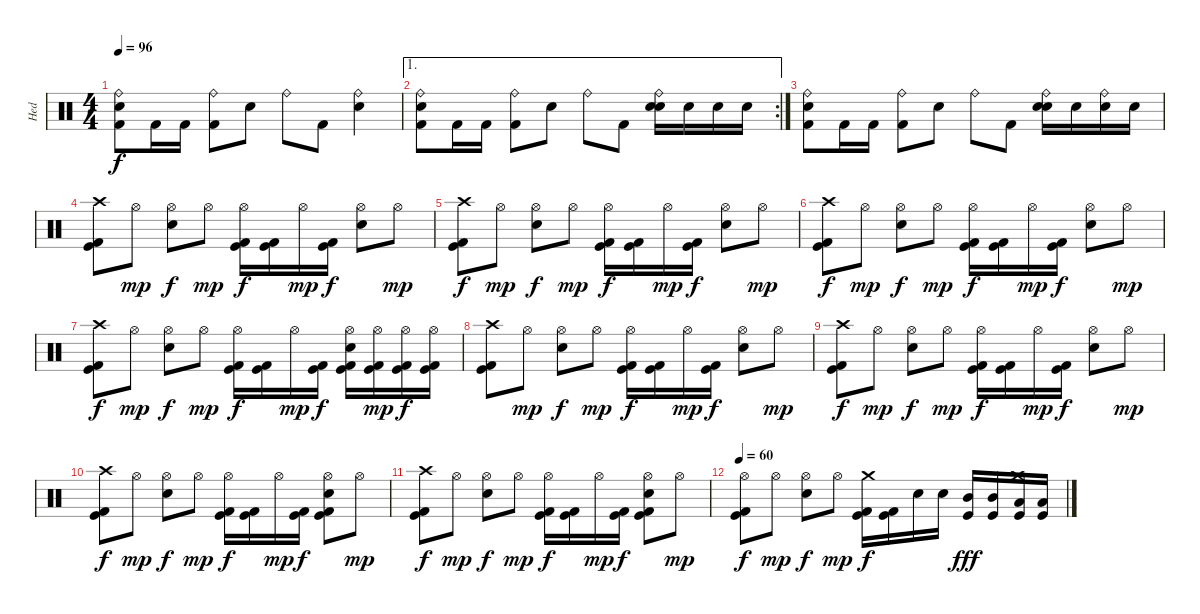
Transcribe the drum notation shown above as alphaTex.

\track ("Hed" "Hed") {instrument percussion}
\staff {score}
\articulation defaults
\ts (4 4)
\tempo 96
\clef neutral
\ks c
("Ride (bell)" "Electric Snare (hit)" "Kick (hit) 2").8{dy f} "Kick (hit) 2".16 "Kick (hit) 2".16 ("Ride (bell)" "Kick (hit) 2").8 "Electric Snare (hit)".8 "Ride (bell)".8 "Kick (hit) 2".8 ("Ride (bell)" "Electric Snare (hit)").4 |
\ae 1
\rc 2
("Ride (bell)" "Electric Snare (hit)" "Kick (hit) 2").8 "Kick (hit) 2".16 "Kick (hit) 2".16 ("Ride (bell)" "Kick (hit) 2").8 "Electric Snare (hit)".8 "Ride (bell)".8 "Kick (hit) 2".8 ("Ride (bell)" "Snare (hit) 2" "Electric Snare (hit)").16 "Snare (hit) 2".16 "Snare (hit) 2".16 "Snare (hit) 2".16 |
("Ride (bell)" "Electric Snare (hit)" "Kick (hit) 2").8 "Kick (hit) 2".16 "Kick (hit) 2".16 ("Ride (bell)" "Kick (hit) 2").8 "Electric Snare (hit)".8 "Ride (bell)".8 "Kick (hit) 2".8 ("Ride (bell)" "Snare (hit) 2" "Electric Snare (hit)").16 "Snare (hit) 2".16 ("Ride (bell)" "Snare (hit) 2").16 "Snare (hit) 2".16 |
("Crash high (hit)" "Kick (hit) 2" "Kick (hit)").8 "Hi-Hat (open)".8{dy mp} ("Hi-Hat (open)" "Snare (hit) 2").8{dy f} "Hi-Hat (open)".8{dy mp} ("Hi-Hat (open)" "Kick (hit) 2" "Kick (hit)").16{dy f} ("Kick (hit) 2" "Kick (hit)").16 "Hi-Hat (open)".16{dy mp} ("Kick (hit) 2" "Kick (hit)").16{dy f} ("Hi-Hat (open)" "Snare (hit) 2").8 "Hi-Hat (open)".8{dy mp} |
("Crash high (hit)" "Kick (hit) 2" "Kick (hit)").8{dy f} "Hi-Hat (open)".8{dy mp} ("Hi-Hat (open)" "Snare (hit) 2").8{dy f} "Hi-Hat (open)".8{dy mp} ("Hi-Hat (open)" "Kick (hit) 2" "Kick (hit)").16{dy f} ("Kick (hit) 2" "Kick (hit)").16 "Hi-Hat (open)".16{dy mp} ("Kick (hit) 2" "Kick (hit)").16{dy f} ("Hi-Hat (open)" "Snare (hit) 2").8 "Hi-Hat (open)".8{dy mp} |
("Crash high (hit)" "Kick (hit) 2" "Kick (hit)").8{dy f} "Hi-Hat (open)".8{dy mp} ("Hi-Hat (open)" "Snare (hit) 2").8{dy f} "Hi-Hat (open)".8{dy mp} ("Hi-Hat (open)" "Kick (hit) 2" "Kick (hit)").16{dy f} ("Kick (hit) 2" "Kick (hit)").16 "Hi-Hat (open)".16{dy mp} ("Kick (hit) 2" "Kick (hit)").16{dy f} ("Hi-Hat (open)" "Snare (hit) 2").8 "Hi-Hat (open)".8{dy mp} |
("Crash high (hit)" "Kick (hit) 2" "Kick (hit)").8{dy f} "Hi-Hat (open)".8{dy mp} ("Hi-Hat (open)" "Snare (hit) 2").8{dy f} "Hi-Hat (open)".8{dy mp} ("Hi-Hat (open)" "Kick (hit) 2" "Kick (hit)").16{dy f} ("Kick (hit) 2" "Kick (hit)").16 "Hi-Hat (open)".16{dy mp} ("Kick (hit) 2" "Kick (hit)").16{dy f} ("Hi-Hat (open)" "Snare (hit) 2" "Kick (hit) 2" "Kick (hit)").16 ("Hi-Hat (open)" "Kick (hit) 2" "Kick (hit)").16{dy mp} ("Hi-Hat (open)" "Kick (hit) 2" "Kick (hit)").16{dy f} ("Hi-Hat (open)" "Kick (hit) 2" "Kick (hit)").16 |
("Crash high (hit)" "Kick (hit) 2" "Kick (hit)").8 "Hi-Hat (open)".8{dy mp} ("Hi-Hat (open)" "Snare (hit) 2").8{dy f} "Hi-Hat (open)".8{dy mp} ("Hi-Hat (open)" "Kick (hit) 2" "Kick (hit)").16{dy f} ("Kick (hit) 2" "Kick (hit)").16 "Hi-Hat (open)".16{dy mp} ("Kick (hit) 2" "Kick (hit)").16{dy f} ("Hi-Hat (open)" "Snare (hit) 2").8 "Hi-Hat (open)".8{dy mp} |
("Crash high (hit)" "Kick (hit) 2" "Kick (hit)").8{dy f} "Hi-Hat (open)".8{dy mp} ("Hi-Hat (open)" "Snare (hit) 2").8{dy f} "Hi-Hat (open)".8{dy mp} ("Hi-Hat (open)" "Kick (hit) 2" "Kick (hit)").16{dy f} ("Kick (hit) 2" "Kick (hit)").16 "Hi-Hat (open)".16{dy mp} ("Kick (hit) 2" "Kick (hit)").16{dy f} ("Hi-Hat (open)" "Snare (hit) 2").8 "Hi-Hat (open)".8{dy mp} |
("Crash high (hit)" "Kick (hit) 2" "Kick (hit)").8{dy f} "Hi-Hat (open)".8{dy mp} ("Hi-Hat (open)" "Snare (hit) 2").8{dy f} "Hi-Hat (open)".8{dy mp} ("Hi-Hat (open)" "Kick (hit) 2" "Kick (hit)").16{dy f} ("Kick (hit) 2" "Kick (hit)").16 "Hi-Hat (open)".16{dy mp} ("Kick (hit) 2" "Kick (hit)").16{dy f} ("Hi-Hat (open)" "Snare (hit) 2" "Kick (hit) 2" "Kick (hit)").8 "Hi-Hat (open)".8{dy mp} |
("Crash high (hit)" "Kick (hit) 2" "Kick (hit)").8{dy f volume 0} "Hi-Hat (open)".8{dy mp} ("Hi-Hat (open)" "Snare (hit) 2").8{dy f} "Hi-Hat (open)".8{dy mp} ("Hi-Hat (open)" "Kick (hit) 2" "Kick (hit)").16{dy f} ("Kick (hit) 2" "Kick (hit)").16 "Hi-Hat (open)".16{dy mp} ("Kick (hit) 2" "Kick (hit)").16{dy f} ("Hi-Hat (open)" "Snare (hit) 2" "Kick (hit) 2" "Kick (hit)").8 "Hi-Hat (open)".8{dy mp} |
\tempo 60
("Hi-Hat (open)" "Kick (hit) 2" "Kick (hit)").8{dy f} "Hi-Hat (open)".8{dy mp} ("Hi-Hat (open)" "Snare (hit) 2").8{dy f} "Hi-Hat (open)".8{dy mp} ("Crash medium (hit)" "Kick (hit) 2" "Kick (hit)").16{dy f} ("Kick (hit) 2" "Kick (hit)").16 "Snare (hit) 2".16 "Snare (hit) 2".16 ("Mid Tom (hit)" "Kick (hit)").16{dy fff} ("Mid Tom (hit)" "Kick (hit)").16 ("Crash medium (hit)" "Low Tom (hit)" "Kick (hit)").16 ("Low Tom (hit)" "Kick (hit)").16
